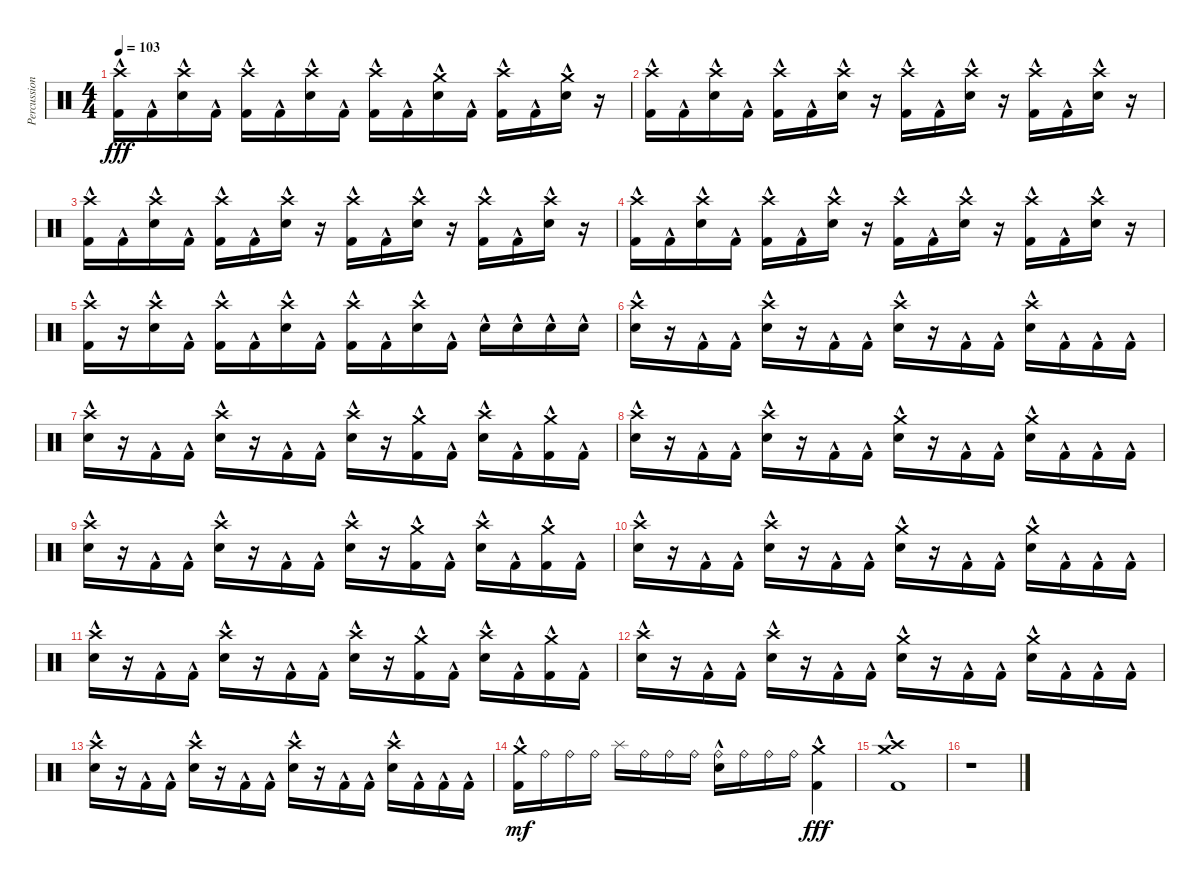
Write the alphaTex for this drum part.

\track ("Percussion" "Percussion") {instrument percussion}
\staff {score}
\articulation defaults
\ts (4 4)
\tempo 103
\clef neutral
\ks c
("Kick (hit) 2"{hac} "Crash high (hit)").16{dy fff} "Kick (hit) 2"{hac}.16 ("Electric Snare (hit)"{hac} "Crash high (hit)").16 "Kick (hit) 2"{hac}.16 ("Kick (hit) 2"{hac} "Crash high (hit)").16 "Kick (hit) 2"{hac}.16 ("Electric Snare (hit)"{hac} "Crash high (hit)").16 "Kick (hit) 2"{hac}.16 ("Kick (hit) 2"{hac} "Crash high (hit)").16 "Kick (hit) 2"{hac}.16 ("Electric Snare (hit)"{hac} "Crash medium (hit)"{hac}).16 "Kick (hit) 2"{hac}.16 ("Kick (hit) 2"{hac} "Crash high (hit)").16 "Kick (hit) 2"{hac}.16 ("Electric Snare (hit)"{hac} "Crash medium (hit)"{hac}).16 r.16 |
("Kick (hit) 2"{hac} "Crash high (hit)").16 "Kick (hit) 2"{hac}.16 ("Electric Snare (hit)"{hac} "Crash high (hit)").16 "Kick (hit) 2"{hac}.16 ("Kick (hit) 2"{hac} "Crash high (hit)").16 "Kick (hit) 2"{hac}.16 ("Electric Snare (hit)"{hac} "Crash high (hit)").16 r.16 ("Kick (hit) 2"{hac} "Crash high (hit)").16 "Kick (hit) 2"{hac}.16 ("Electric Snare (hit)"{hac} "Crash high (hit)").16 r.16 ("Kick (hit) 2"{hac} "Crash high (hit)").16 "Kick (hit) 2"{hac}.16 ("Electric Snare (hit)"{hac} "Crash high (hit)").16 r.16 |
("Kick (hit) 2"{hac} "Crash high (hit)").16 "Kick (hit) 2"{hac}.16 ("Electric Snare (hit)"{hac} "Crash high (hit)").16 "Kick (hit) 2"{hac}.16 ("Kick (hit) 2"{hac} "Crash high (hit)").16 "Kick (hit) 2"{hac}.16 ("Electric Snare (hit)"{hac} "Crash high (hit)").16 r.16 ("Kick (hit) 2"{hac} "Crash high (hit)").16 "Kick (hit) 2"{hac}.16 ("Electric Snare (hit)"{hac} "Crash high (hit)").16 r.16 ("Kick (hit) 2"{hac} "Crash high (hit)").16 "Kick (hit) 2"{hac}.16 ("Electric Snare (hit)"{hac} "Crash high (hit)").16 r.16 |
("Kick (hit) 2"{hac} "Crash high (hit)").16 "Kick (hit) 2"{hac}.16 ("Electric Snare (hit)"{hac} "Crash high (hit)").16 "Kick (hit) 2"{hac}.16 ("Kick (hit) 2"{hac} "Crash high (hit)").16 "Kick (hit) 2"{hac}.16 ("Electric Snare (hit)"{hac} "Crash high (hit)").16 r.16 ("Kick (hit) 2"{hac} "Crash high (hit)").16 "Kick (hit) 2"{hac}.16 ("Electric Snare (hit)"{hac} "Crash high (hit)").16 r.16 ("Kick (hit) 2"{hac} "Crash high (hit)").16 "Kick (hit) 2"{hac}.16 ("Electric Snare (hit)"{hac} "Crash high (hit)").16 r.16 |
("Kick (hit) 2"{hac} "Crash high (hit)").16 r.16 ("Electric Snare (hit)"{hac} "Crash high (hit)").16 "Kick (hit) 2"{hac}.16 ("Kick (hit) 2"{hac} "Crash high (hit)").16 "Kick (hit) 2"{hac}.16 ("Electric Snare (hit)"{hac} "Crash high (hit)").16 "Kick (hit) 2"{hac}.16 ("Kick (hit) 2"{hac} "Crash high (hit)").16 "Kick (hit) 2"{hac}.16 ("Electric Snare (hit)"{hac} "Crash high (hit)").16 "Kick (hit) 2"{hac}.16 "Electric Snare (hit)"{hac}.16 "Electric Snare (hit)"{hac}.16 "Electric Snare (hit)"{hac}.16 "Electric Snare (hit)"{hac}.16 |
("Electric Snare (hit)"{hac} "Crash high (hit)").16 r.16 "Kick (hit) 2"{hac}.16 "Kick (hit) 2"{hac}.16 ("Electric Snare (hit)"{hac} "Crash high (hit)").16 r.16 "Kick (hit) 2"{hac}.16 "Kick (hit) 2"{hac}.16 ("Electric Snare (hit)"{hac} "Crash high (hit)").16 r.16 "Kick (hit) 2"{hac}.16 "Kick (hit) 2"{hac}.16 ("Electric Snare (hit)"{hac} "Crash high (hit)").16 "Kick (hit) 2"{hac}.16 "Kick (hit) 2"{hac}.16 "Kick (hit) 2"{hac}.16 |
("Electric Snare (hit)"{hac} "Crash high (hit)").16 r.16 "Kick (hit) 2"{hac}.16 "Kick (hit) 2"{hac}.16 ("Electric Snare (hit)"{hac} "Crash high (hit)").16 r.16 "Kick (hit) 2"{hac}.16 "Kick (hit) 2"{hac}.16 ("Electric Snare (hit)"{hac} "Crash high (hit)").16 r.16 ("Kick (hit) 2"{hac} "Crash medium (hit)"{hac}).16 "Kick (hit) 2"{hac}.16 ("Electric Snare (hit)"{hac} "Crash high (hit)").16 "Kick (hit) 2"{hac}.16 ("Kick (hit) 2"{hac} "Crash medium (hit)"{hac}).16 "Kick (hit) 2"{hac}.16 |
("Electric Snare (hit)"{hac} "Crash high (hit)").16 r.16 "Kick (hit) 2"{hac}.16 "Kick (hit) 2"{hac}.16 ("Electric Snare (hit)"{hac} "Crash high (hit)").16 r.16 "Kick (hit) 2"{hac}.16 "Kick (hit) 2"{hac}.16 ("Electric Snare (hit)"{hac} "Crash medium (hit)"{hac}).16 r.16 "Kick (hit) 2"{hac}.16 "Kick (hit) 2"{hac}.16 ("Electric Snare (hit)"{hac} "Crash medium (hit)"{hac}).16 "Kick (hit) 2"{hac}.16 "Kick (hit) 2"{hac}.16 "Kick (hit) 2"{hac}.16 |
("Electric Snare (hit)"{hac} "Crash high (hit)").16 r.16 "Kick (hit) 2"{hac}.16 "Kick (hit) 2"{hac}.16 ("Electric Snare (hit)"{hac} "Crash high (hit)").16 r.16 "Kick (hit) 2"{hac}.16 "Kick (hit) 2"{hac}.16 ("Electric Snare (hit)"{hac} "Crash high (hit)").16 r.16 ("Kick (hit) 2"{hac} "Crash medium (hit)"{hac}).16 "Kick (hit) 2"{hac}.16 ("Electric Snare (hit)"{hac} "Crash high (hit)").16 "Kick (hit) 2"{hac}.16 ("Kick (hit) 2"{hac} "Crash medium (hit)"{hac}).16 "Kick (hit) 2"{hac}.16 |
("Electric Snare (hit)"{hac} "Crash high (hit)").16 r.16 "Kick (hit) 2"{hac}.16 "Kick (hit) 2"{hac}.16 ("Electric Snare (hit)"{hac} "Crash high (hit)").16 r.16 "Kick (hit) 2"{hac}.16 "Kick (hit) 2"{hac}.16 ("Electric Snare (hit)"{hac} "Crash medium (hit)"{hac}).16 r.16 "Kick (hit) 2"{hac}.16 "Kick (hit) 2"{hac}.16 ("Electric Snare (hit)"{hac} "Crash medium (hit)"{hac}).16 "Kick (hit) 2"{hac}.16 "Kick (hit) 2"{hac}.16 "Kick (hit) 2"{hac}.16 |
("Electric Snare (hit)"{hac} "Crash high (hit)").16 r.16 "Kick (hit) 2"{hac}.16 "Kick (hit) 2"{hac}.16 ("Electric Snare (hit)"{hac} "Crash high (hit)").16 r.16 "Kick (hit) 2"{hac}.16 "Kick (hit) 2"{hac}.16 ("Electric Snare (hit)"{hac} "Crash high (hit)").16 r.16 ("Kick (hit) 2"{hac} "Crash medium (hit)"{hac}).16 "Kick (hit) 2"{hac}.16 ("Electric Snare (hit)"{hac} "Crash high (hit)").16 "Kick (hit) 2"{hac}.16 ("Kick (hit) 2"{hac} "Crash medium (hit)"{hac}).16 "Kick (hit) 2"{hac}.16 |
("Electric Snare (hit)"{hac} "Crash high (hit)").16 r.16 "Kick (hit) 2"{hac}.16 "Kick (hit) 2"{hac}.16 ("Electric Snare (hit)"{hac} "Crash high (hit)").16 r.16 "Kick (hit) 2"{hac}.16 "Kick (hit) 2"{hac}.16 ("Electric Snare (hit)"{hac} "Crash medium (hit)"{hac}).16 r.16 "Kick (hit) 2"{hac}.16 "Kick (hit) 2"{hac}.16 ("Electric Snare (hit)"{hac} "Crash medium (hit)"{hac}).16 "Kick (hit) 2"{hac}.16 "Kick (hit) 2"{hac}.16 "Kick (hit) 2"{hac}.16 |
("Electric Snare (hit)"{hac} "Crash high (hit)").16 r.16 "Kick (hit) 2"{hac}.16 "Kick (hit) 2"{hac}.16 ("Electric Snare (hit)"{hac} "Crash high (hit)").16 r.16 "Kick (hit) 2"{hac}.16 "Kick (hit) 2"{hac}.16 ("Electric Snare (hit)"{hac} "Crash high (hit)").16 r.16 "Kick (hit) 2"{hac}.16 "Kick (hit) 2"{hac}.16 ("Electric Snare (hit)"{hac} "Crash high (hit)").16 "Kick (hit) 2"{hac}.16 "Kick (hit) 2"{hac}.16 "Kick (hit) 2"{hac}.16 |
("Kick (hit) 2"{hac} "Crash medium (hit)").16{dy mf} "Ride (bell)".16 "Ride (bell)".16 "Ride (bell)".16 "Splash (hit)".16 "Ride (bell)".16 "Ride (bell)".16 "Ride (bell)".16 ("Electric Snare (hit)"{hac} "Ride (bell)").16 "Ride (bell)".16 "Ride (bell)".16 "Ride (bell)".16 ("Kick (hit) 2"{hac} "Crash medium (hit)").4{dy fff} |
("Kick (hit) 2"{hac} "Crash medium (hit)"{hac} "Crash high (hit)"{hac}).1 |
r.1
